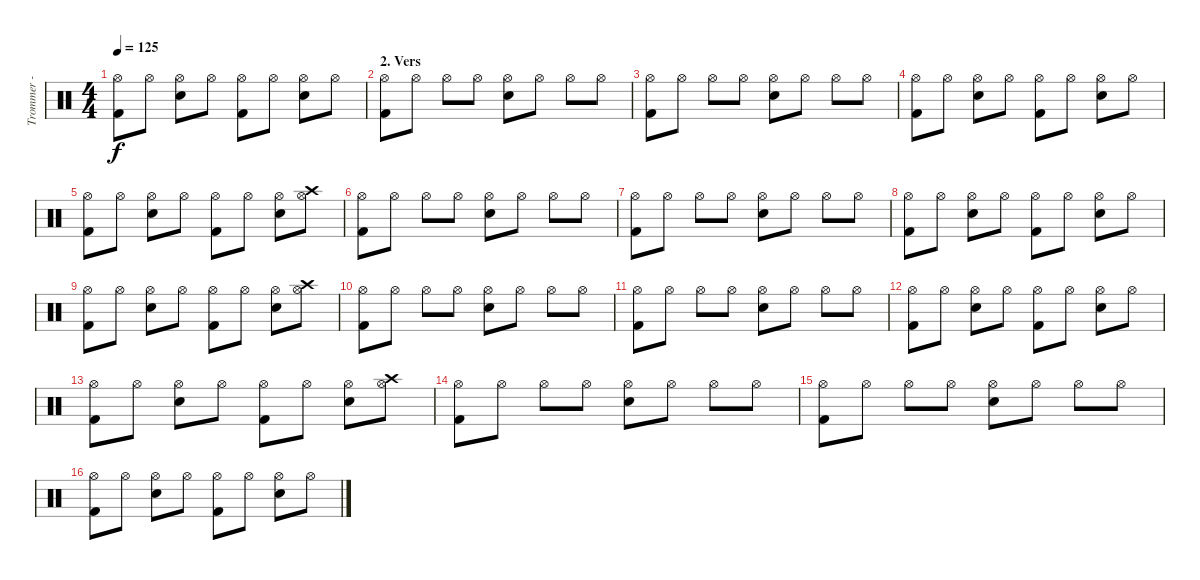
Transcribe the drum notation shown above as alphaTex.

\track ("Trommer - Alex" "Trommer - ") {instrument percussion}
\staff {score}
\articulation defaults
\ts (4 4)
\tempo 125
\clef neutral
\ks c
("Hi-Hat (open)" "Kick (hit) 2").8{dy f} "Hi-Hat (open)".8 ("Hi-Hat (open)" "Snare (hit) 2").8 "Hi-Hat (open)".8 ("Hi-Hat (open)" "Kick (hit) 2").8 "Hi-Hat (open)".8 ("Hi-Hat (open)" "Snare (hit) 2").8 "Hi-Hat (open)".8 |
\section ("" "2. Vers")
("Hi-Hat (open)" "Kick (hit) 2").8 "Hi-Hat (open)".8 "Hi-Hat (open)".8 "Hi-Hat (open)".8 ("Hi-Hat (open)" "Snare (hit) 2").8 "Hi-Hat (open)".8 "Hi-Hat (open)".8 "Hi-Hat (open)".8 |
("Hi-Hat (open)" "Kick (hit) 2").8 "Hi-Hat (open)".8 "Hi-Hat (open)".8 "Hi-Hat (open)".8 ("Hi-Hat (open)" "Snare (hit) 2").8 "Hi-Hat (open)".8 "Hi-Hat (open)".8 "Hi-Hat (open)".8 |
("Hi-Hat (open)" "Kick (hit) 2").8 "Hi-Hat (open)".8 ("Hi-Hat (open)" "Snare (hit) 2").8 "Hi-Hat (open)".8 ("Hi-Hat (open)" "Kick (hit) 2").8 "Hi-Hat (open)".8 ("Hi-Hat (open)" "Snare (hit) 2").8 "Hi-Hat (open)".8 |
("Hi-Hat (open)" "Kick (hit) 2").8 "Hi-Hat (open)".8 ("Hi-Hat (open)" "Snare (hit) 2").8 "Hi-Hat (open)".8 ("Hi-Hat (open)" "Kick (hit) 2").8 "Hi-Hat (open)".8 ("Hi-Hat (open)" "Snare (hit) 2").8 ("Hi-Hat (open)" "Crash high (hit)").8 |
("Hi-Hat (open)" "Kick (hit) 2").8 "Hi-Hat (open)".8 "Hi-Hat (open)".8 "Hi-Hat (open)".8 ("Hi-Hat (open)" "Snare (hit) 2").8 "Hi-Hat (open)".8 "Hi-Hat (open)".8 "Hi-Hat (open)".8 |
("Hi-Hat (open)" "Kick (hit) 2").8 "Hi-Hat (open)".8 "Hi-Hat (open)".8 "Hi-Hat (open)".8 ("Hi-Hat (open)" "Snare (hit) 2").8 "Hi-Hat (open)".8 "Hi-Hat (open)".8 "Hi-Hat (open)".8 |
("Hi-Hat (open)" "Kick (hit) 2").8 "Hi-Hat (open)".8 ("Hi-Hat (open)" "Snare (hit) 2").8 "Hi-Hat (open)".8 ("Hi-Hat (open)" "Kick (hit) 2").8 "Hi-Hat (open)".8 ("Hi-Hat (open)" "Snare (hit) 2").8 "Hi-Hat (open)".8 |
("Hi-Hat (open)" "Kick (hit) 2").8 "Hi-Hat (open)".8 ("Hi-Hat (open)" "Snare (hit) 2").8 "Hi-Hat (open)".8 ("Hi-Hat (open)" "Kick (hit) 2").8 "Hi-Hat (open)".8 ("Hi-Hat (open)" "Snare (hit) 2").8 ("Hi-Hat (open)" "Crash high (hit)").8 |
("Hi-Hat (open)" "Kick (hit) 2").8 "Hi-Hat (open)".8 "Hi-Hat (open)".8 "Hi-Hat (open)".8 ("Hi-Hat (open)" "Snare (hit) 2").8 "Hi-Hat (open)".8 "Hi-Hat (open)".8 "Hi-Hat (open)".8 |
("Hi-Hat (open)" "Kick (hit) 2").8 "Hi-Hat (open)".8 "Hi-Hat (open)".8 "Hi-Hat (open)".8 ("Hi-Hat (open)" "Snare (hit) 2").8 "Hi-Hat (open)".8 "Hi-Hat (open)".8 "Hi-Hat (open)".8 |
("Hi-Hat (open)" "Kick (hit) 2").8 "Hi-Hat (open)".8 ("Hi-Hat (open)" "Snare (hit) 2").8 "Hi-Hat (open)".8 ("Hi-Hat (open)" "Kick (hit) 2").8 "Hi-Hat (open)".8 ("Hi-Hat (open)" "Snare (hit) 2").8 "Hi-Hat (open)".8 |
("Hi-Hat (open)" "Kick (hit) 2").8 "Hi-Hat (open)".8 ("Hi-Hat (open)" "Snare (hit) 2").8 "Hi-Hat (open)".8 ("Hi-Hat (open)" "Kick (hit) 2").8 "Hi-Hat (open)".8 ("Hi-Hat (open)" "Snare (hit) 2").8 ("Hi-Hat (open)" "Crash high (hit)").8 |
("Hi-Hat (open)" "Kick (hit) 2").8 "Hi-Hat (open)".8 "Hi-Hat (open)".8 "Hi-Hat (open)".8 ("Hi-Hat (open)" "Snare (hit) 2").8 "Hi-Hat (open)".8 "Hi-Hat (open)".8 "Hi-Hat (open)".8 |
("Hi-Hat (open)" "Kick (hit) 2").8 "Hi-Hat (open)".8 "Hi-Hat (open)".8 "Hi-Hat (open)".8 ("Hi-Hat (open)" "Snare (hit) 2").8 "Hi-Hat (open)".8 "Hi-Hat (open)".8 "Hi-Hat (open)".8 |
("Hi-Hat (open)" "Kick (hit) 2").8 "Hi-Hat (open)".8 ("Hi-Hat (open)" "Snare (hit) 2").8 "Hi-Hat (open)".8 ("Hi-Hat (open)" "Kick (hit) 2").8 "Hi-Hat (open)".8 ("Hi-Hat (open)" "Snare (hit) 2").8 "Hi-Hat (open)".8
